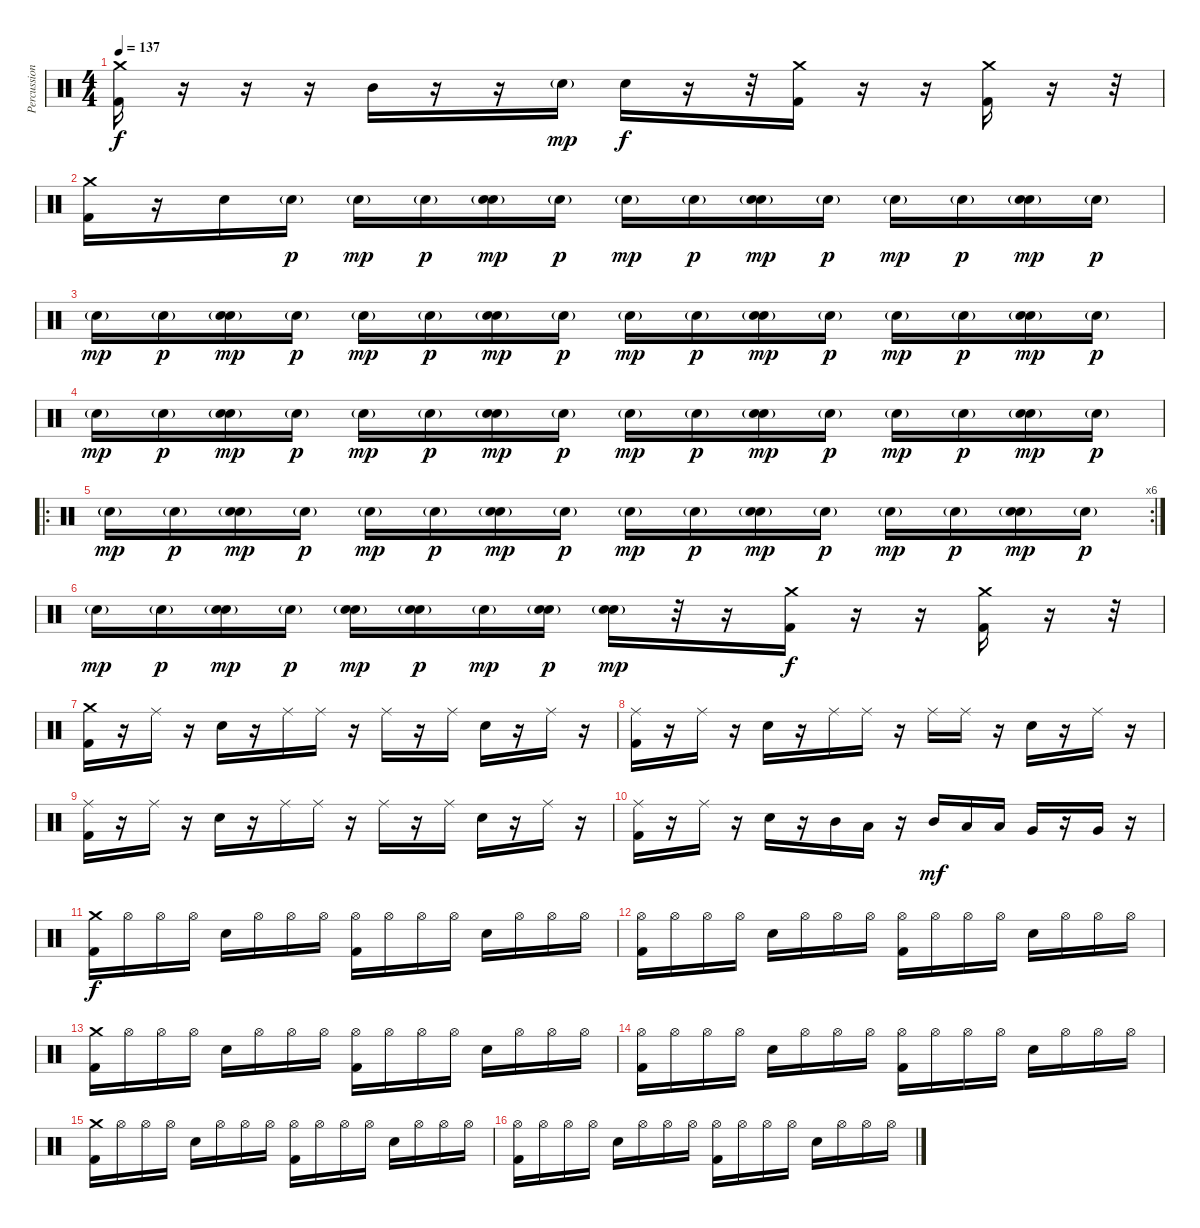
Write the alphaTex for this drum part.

\track ("Percussion" "Percussion") {instrument percussion}
\staff {score}
\articulation defaults
\ts (4 4)
\tempo 137
\clef neutral
\ks c
("Crash medium (hit)" "Kick (hit) 2").16{dy f} r.16 r.16 r.16 "Mid Tom (hit)".16 r.16 r.16 "Electric Snare (hit)"{g}.16{dy mp} "Electric Snare (hit)".16{dy f} r.16 r.32 ("Crash medium (hit)" "Kick (hit) 2").16 r.16 r.16 ("Crash medium (hit)" "Kick (hit) 2").16 r.16 r.32 |
("Crash medium (hit)" "Kick (hit) 2").16 r.16 "Electric Snare (hit)".16 "Electric Snare (hit)"{g}.16{dy p} "Electric Snare (hit)"{g}.16{dy mp} "Electric Snare (hit)"{g}.16{dy p} ("Electric Snare (hit)"{g} "Electric Snare (hit)").16{dy mp} "Electric Snare (hit)"{g}.16{dy p} "Electric Snare (hit)"{g}.16{dy mp} "Electric Snare (hit)"{g}.16{dy p} ("Electric Snare (hit)"{g} "Electric Snare (hit)").16{dy mp} "Electric Snare (hit)"{g}.16{dy p} "Electric Snare (hit)"{g}.16{dy mp} "Electric Snare (hit)"{g}.16{dy p} ("Electric Snare (hit)"{g} "Electric Snare (hit)").16{dy mp} "Electric Snare (hit)"{g}.16{dy p} |
"Electric Snare (hit)"{g}.16{dy mp} "Electric Snare (hit)"{g}.16{dy p} ("Electric Snare (hit)"{g} "Electric Snare (hit)").16{dy mp} "Electric Snare (hit)"{g}.16{dy p} "Electric Snare (hit)"{g}.16{dy mp} "Electric Snare (hit)"{g}.16{dy p} ("Electric Snare (hit)"{g} "Electric Snare (hit)").16{dy mp} "Electric Snare (hit)"{g}.16{dy p} "Electric Snare (hit)"{g}.16{dy mp} "Electric Snare (hit)"{g}.16{dy p} ("Electric Snare (hit)"{g} "Electric Snare (hit)").16{dy mp} "Electric Snare (hit)"{g}.16{dy p} "Electric Snare (hit)"{g}.16{dy mp} "Electric Snare (hit)"{g}.16{dy p} ("Electric Snare (hit)"{g} "Electric Snare (hit)").16{dy mp} "Electric Snare (hit)"{g}.16{dy p} |
"Electric Snare (hit)"{g}.16{dy mp} "Electric Snare (hit)"{g}.16{dy p} ("Electric Snare (hit)"{g} "Electric Snare (hit)").16{dy mp} "Electric Snare (hit)"{g}.16{dy p} "Electric Snare (hit)"{g}.16{dy mp} "Electric Snare (hit)"{g}.16{dy p} ("Electric Snare (hit)"{g} "Electric Snare (hit)").16{dy mp} "Electric Snare (hit)"{g}.16{dy p} "Electric Snare (hit)"{g}.16{dy mp} "Electric Snare (hit)"{g}.16{dy p} ("Electric Snare (hit)"{g} "Electric Snare (hit)").16{dy mp} "Electric Snare (hit)"{g}.16{dy p} "Electric Snare (hit)"{g}.16{dy mp} "Electric Snare (hit)"{g}.16{dy p} ("Electric Snare (hit)"{g} "Electric Snare (hit)").16{dy mp} "Electric Snare (hit)"{g}.16{dy p} |
\ro
\rc 6 "Electric Snare (hit)"{g}.16{dy mp} "Electric Snare (hit)"{g}.16{dy p}
("Electric Snare (hit)"{g} "Electric Snare (hit)").16{dy mp} "Electric Snare (hit)"{g}.16{dy p} "Electric Snare (hit)"{g}.16{dy mp} "Electric Snare (hit)"{g}.16{dy p} ("Electric Snare (hit)"{g} "Electric Snare (hit)").16{dy mp} "Electric Snare (hit)"{g}.16{dy p} "Electric Snare (hit)"{g}.16{dy mp} "Electric Snare (hit)"{g}.16{dy p} ("Electric Snare (hit)"{g} "Electric Snare (hit)").16{dy mp} "Electric Snare (hit)"{g}.16{dy p} "Electric Snare (hit)"{g}.16{dy mp} "Electric Snare (hit)"{g}.16{dy p} ("Electric Snare (hit)"{g} "Electric Snare (hit)").16{dy mp} "Electric Snare (hit)"{g}.16{dy p} |
"Electric Snare (hit)"{g}.16{dy mp} "Electric Snare (hit)"{g}.16{dy p} ("Electric Snare (hit)"{g} "Electric Snare (hit)").16{dy mp} "Electric Snare (hit)"{g}.16{dy p} ("Electric Snare (hit)"{g} "Electric Snare (hit)").16{dy mp} ("Electric Snare (hit)"{g} "Electric Snare (hit)").16{dy p} "Electric Snare (hit)"{g}.16{dy mp} ("Electric Snare (hit)"{g} "Electric Snare (hit)").16{dy p} ("Electric Snare (hit)"{g} "Electric Snare (hit)").16{dy mp} r.32 r.16 ("Crash medium (hit)" "Kick (hit) 2").16{dy f} r.16 r.16 ("Crash medium (hit)" "Kick (hit) 2").16 r.16 r.32 |
("Crash medium (hit)" "Kick (hit) 2").16 r.16 "Ride (middle)".16 r.16 "Electric Snare (hit)".16 r.16 "Ride (middle)".16 "Ride (middle)".16 r.16 "Ride (middle)".16 r.16 "Ride (middle)".16 "Electric Snare (hit)".16 r.16 "Ride (middle)".16 r.16 |
("Ride (middle)" "Kick (hit) 2").16 r.16 "Ride (middle)".16 r.16 "Electric Snare (hit)".16 r.16 "Ride (middle)".16 "Ride (middle)".16 r.16 "Ride (middle)".16 "Ride (middle)".16 r.16 "Electric Snare (hit)".16 r.16 "Ride (middle)".16 r.16 |
("Ride (middle)" "Kick (hit) 2").16 r.16 "Ride (middle)".16 r.16 "Electric Snare (hit)".16 r.16 "Ride (middle)".16 "Ride (middle)".16 r.16 "Ride (middle)".16 r.16 "Ride (middle)".16 "Electric Snare (hit)".16 r.16 "Ride (middle)".16 r.16 |
("Ride (middle)" "Kick (hit) 2").16 r.16 "Ride (middle)".16 r.16 "Electric Snare (hit)".16 r.16 "Mid Tom (hit)".16 "Low Tom (hit)".16 r.16 "Mid Tom (hit)".16{dy mf} "Low Tom (hit)".16 "Low Tom (hit)".16 "Very Low Tom (hit)".16 r.16 "Very Low Tom (hit)".16 r.16 |
("Crash medium (hit)" "Kick (hit) 2").16{dy f} "Hi-Hat (open)".16 "Hi-Hat (open)".16 "Hi-Hat (open)".16 "Electric Snare (hit)".16 "Hi-Hat (open)".16 "Hi-Hat (open)".16 "Hi-Hat (open)".16 ("Hi-Hat (open)" "Kick (hit) 2").16 "Hi-Hat (open)".16 "Hi-Hat (open)".16 "Hi-Hat (open)".16 "Electric Snare (hit)".16 "Hi-Hat (open)".16 "Hi-Hat (open)".16 "Hi-Hat (open)".16 |
("Hi-Hat (open)" "Kick (hit) 2").16 "Hi-Hat (open)".16 "Hi-Hat (open)".16 "Hi-Hat (open)".16 "Electric Snare (hit)".16 "Hi-Hat (open)".16 "Hi-Hat (open)".16 "Hi-Hat (open)".16 ("Hi-Hat (open)" "Kick (hit) 2").16 "Hi-Hat (open)".16 "Hi-Hat (open)".16 "Hi-Hat (open)".16 "Electric Snare (hit)".16 "Hi-Hat (open)".16 "Hi-Hat (open)".16 "Hi-Hat (open)".16 |
("Crash medium (hit)" "Kick (hit) 2").16 "Hi-Hat (open)".16 "Hi-Hat (open)".16 "Hi-Hat (open)".16 "Electric Snare (hit)".16 "Hi-Hat (open)".16 "Hi-Hat (open)".16 "Hi-Hat (open)".16 ("Hi-Hat (open)" "Kick (hit) 2").16 "Hi-Hat (open)".16 "Hi-Hat (open)".16 "Hi-Hat (open)".16 "Electric Snare (hit)".16 "Hi-Hat (open)".16 "Hi-Hat (open)".16 "Hi-Hat (open)".16 |
("Hi-Hat (open)" "Kick (hit) 2").16 "Hi-Hat (open)".16 "Hi-Hat (open)".16 "Hi-Hat (open)".16 "Electric Snare (hit)".16 "Hi-Hat (open)".16 "Hi-Hat (open)".16 "Hi-Hat (open)".16 ("Hi-Hat (open)" "Kick (hit) 2").16 "Hi-Hat (open)".16 "Hi-Hat (open)".16 "Hi-Hat (open)".16 "Electric Snare (hit)".16 "Hi-Hat (open)".16 "Hi-Hat (open)".16 "Hi-Hat (open)".16 |
("Crash medium (hit)" "Kick (hit) 2").16 "Hi-Hat (open)".16 "Hi-Hat (open)".16 "Hi-Hat (open)".16 "Electric Snare (hit)".16 "Hi-Hat (open)".16 "Hi-Hat (open)".16 "Hi-Hat (open)".16 ("Hi-Hat (open)" "Kick (hit) 2").16 "Hi-Hat (open)".16 "Hi-Hat (open)".16 "Hi-Hat (open)".16 "Electric Snare (hit)".16 "Hi-Hat (open)".16 "Hi-Hat (open)".16 "Hi-Hat (open)".16 |
("Hi-Hat (open)" "Kick (hit) 2").16 "Hi-Hat (open)".16 "Hi-Hat (open)".16 "Hi-Hat (open)".16 "Electric Snare (hit)".16 "Hi-Hat (open)".16 "Hi-Hat (open)".16 "Hi-Hat (open)".16 ("Hi-Hat (open)" "Kick (hit) 2").16 "Hi-Hat (open)".16 "Hi-Hat (open)".16 "Hi-Hat (open)".16 "Electric Snare (hit)".16 "Hi-Hat (open)".16 "Hi-Hat (open)".16 "Hi-Hat (open)".16
